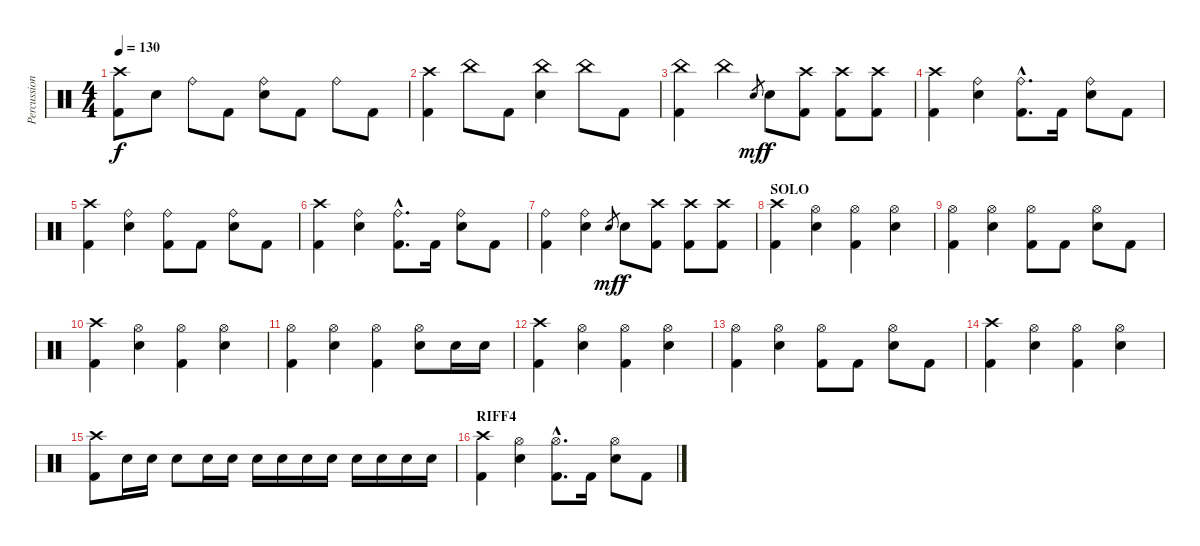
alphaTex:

\track ("Percussion" "Percussion") {instrument percussion}
\staff {score}
\articulation defaults
\ts (4 4)
\tempo 130
\clef neutral
\ks c
("Crash high (hit)" "Kick (hit) 2").8{dy f} "Electric Snare (hit)".8 "Ride (bell)".8 "Kick (hit) 2".8 ("Ride (bell)" "Electric Snare (hit)").8 "Kick (hit) 2".8 "Ride (bell)".8 "Kick (hit) 2".8 |
("Crash high (hit)" "Kick (hit) 2").4 "China (hit)".8 "Kick (hit) 2".8 ("China (hit)" "Electric Snare (hit)").4 "China (hit)".8 "Kick (hit) 2".8 |
("China (hit)" "Kick (hit) 2").4 "China (hit)".4 "Electric Snare (hit)".8{gr dy mf} "Electric Snare (hit)".8{dy f} ("Crash high (hit)" "Kick (hit) 2").8 ("Crash high (hit)" "Kick (hit) 2").8 ("Crash high (hit)" "Kick (hit) 2").8 |
("Crash high (hit)" "Kick (hit) 2").4 ("Ride (bell)" "Electric Snare (hit)").4 ("Ride (bell)"{hac} "Kick (hit) 2"{hac}).8{d} "Kick (hit) 2".16 ("Ride (bell)" "Electric Snare (hit)").8 "Kick (hit) 2".8 |
("Crash high (hit)" "Kick (hit) 2").4 ("Ride (bell)" "Electric Snare (hit)").4 ("Ride (bell)" "Kick (hit) 2").8 "Kick (hit) 2".8 ("Ride (bell)" "Electric Snare (hit)").8 "Kick (hit) 2".8 |
("Crash high (hit)" "Kick (hit) 2").4 ("Ride (bell)" "Electric Snare (hit)").4 ("Ride (bell)"{hac} "Kick (hit) 2"{hac}).8{d} "Kick (hit) 2".16 ("Ride (bell)" "Electric Snare (hit)").8 "Kick (hit) 2".8 |
("Ride (bell)" "Kick (hit) 2").4 ("Ride (bell)" "Electric Snare (hit)").4 "Electric Snare (hit)".8{gr dy mf} "Electric Snare (hit)".8{dy f} ("Crash high (hit)" "Kick (hit) 2").8 ("Crash high (hit)" "Kick (hit) 2").8 ("Crash high (hit)" "Kick (hit) 2").8 |
\section ("" "SOLO")
("Crash high (hit)" "Kick (hit) 2").4 ("Hi-Hat (open)" "Electric Snare (hit)").4 ("Hi-Hat (open)" "Kick (hit) 2").4 ("Hi-Hat (open)" "Electric Snare (hit)").4 |
("Hi-Hat (open)" "Kick (hit) 2").4 ("Hi-Hat (open)" "Electric Snare (hit)").4 ("Hi-Hat (open)" "Kick (hit) 2").8 "Kick (hit) 2".8 ("Hi-Hat (open)" "Electric Snare (hit)").8 "Kick (hit) 2".8 |
("Crash high (hit)" "Kick (hit) 2").4 ("Hi-Hat (open)" "Electric Snare (hit)").4 ("Hi-Hat (open)" "Kick (hit) 2").4 ("Hi-Hat (open)" "Electric Snare (hit)").4 |
("Hi-Hat (open)" "Kick (hit) 2").4 ("Hi-Hat (open)" "Electric Snare (hit)").4 ("Hi-Hat (open)" "Kick (hit) 2").4 ("Hi-Hat (open)" "Electric Snare (hit)").8 "Electric Snare (hit)".16 "Electric Snare (hit)".16 |
("Crash high (hit)" "Kick (hit) 2").4 ("Hi-Hat (open)" "Electric Snare (hit)").4 ("Hi-Hat (open)" "Kick (hit) 2").4 ("Hi-Hat (open)" "Electric Snare (hit)").4 |
("Hi-Hat (open)" "Kick (hit) 2").4 ("Hi-Hat (open)" "Electric Snare (hit)").4 ("Hi-Hat (open)" "Kick (hit) 2").8 "Kick (hit) 2".8 ("Hi-Hat (open)" "Electric Snare (hit)").8 "Kick (hit) 2".8 |
("Crash high (hit)" "Kick (hit) 2").4 ("Hi-Hat (open)" "Electric Snare (hit)").4 ("Hi-Hat (open)" "Kick (hit) 2").4 ("Hi-Hat (open)" "Electric Snare (hit)").4 |
("Crash high (hit)" "Kick (hit) 2").8 "Electric Snare (hit)".16 "Electric Snare (hit)".16 "Electric Snare (hit)".8 "Electric Snare (hit)".16 "Electric Snare (hit)".16 "Electric Snare (hit)".16 "Electric Snare (hit)".16 "Electric Snare (hit)".16 "Electric Snare (hit)".16 "Electric Snare (hit)".16 "Electric Snare (hit)".16 "Electric Snare (hit)".16 "Electric Snare (hit)".16 |
\section ("" "RIFF4")
("Crash high (hit)" "Kick (hit) 2").4 ("Hi-Hat (open)" "Electric Snare (hit)").4 ("Hi-Hat (open)"{hac} "Kick (hit) 2"{hac}).8{d} "Kick (hit) 2".16 ("Hi-Hat (open)" "Electric Snare (hit)").8 "Kick (hit) 2".8
